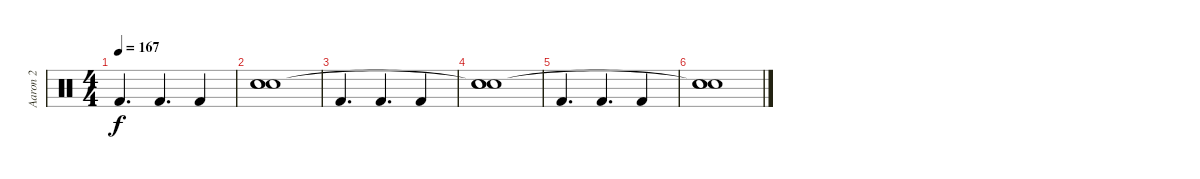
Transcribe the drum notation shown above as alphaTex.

\track ("Aaron 2" "Aaron 2") {instrument percussion}
\staff {score}
\articulation defaults
\ts (4 4)
\tempo 167
\clef neutral
\ks c "Kick (hit) 2".4{d dy f} "Kick (hit) 2".4{d} "Kick (hit) 2".4
|
("Electric Snare (hit)" "Electric Snare (hit)" "Snare (hit)").1 |
"Kick (hit) 2".4{d} "Kick (hit) 2".4{d} "Kick (hit) 2".4 |
("Electric Snare (hit)" "Electric Snare (hit)" "Snare (hit)"{t}).1 |
"Kick (hit) 2".4{d} "Kick (hit) 2".4{d} "Kick (hit) 2".4 |
("Electric Snare (hit)" "Electric Snare (hit)" "Snare (hit)"{t}).1
